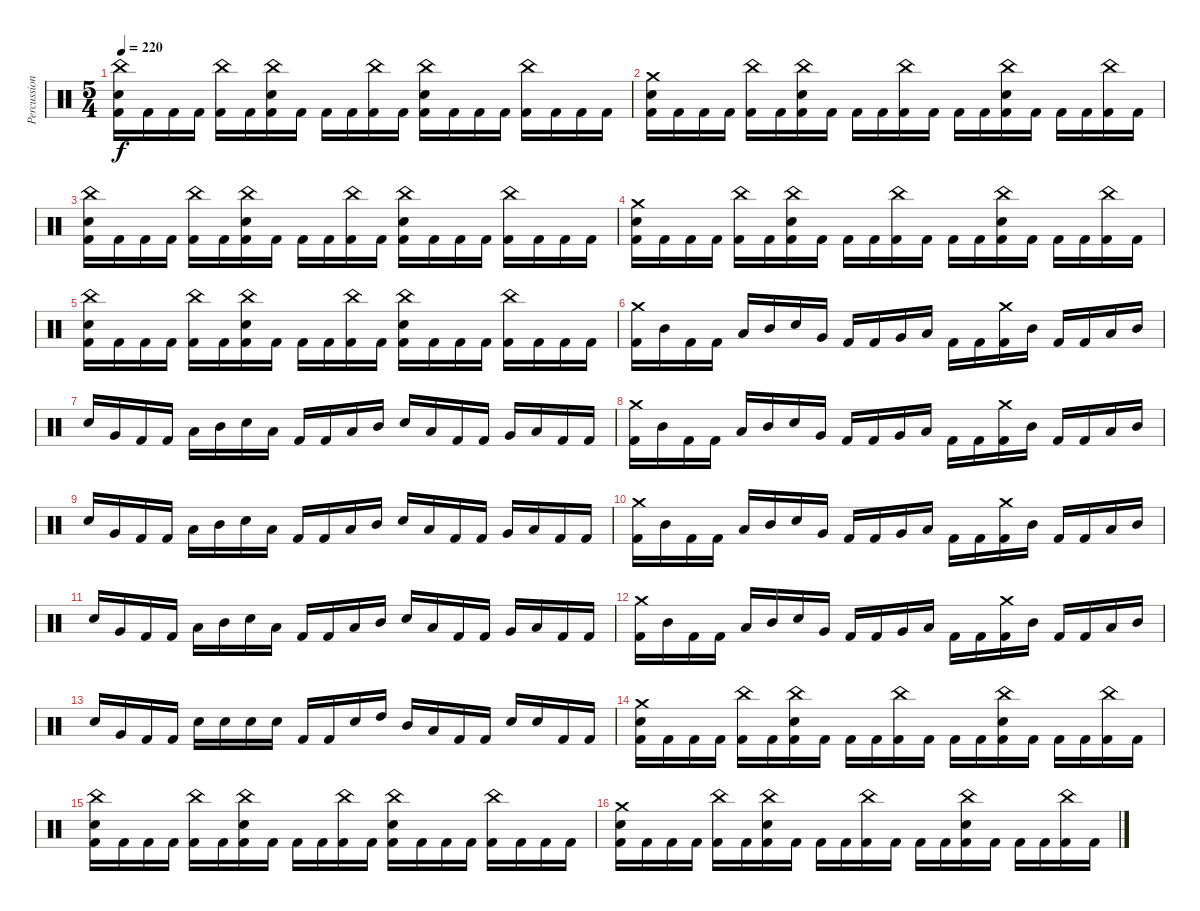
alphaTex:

\track ("Percussion" "Percussion") {instrument percussion}
\staff {score}
\articulation defaults
\ts (5 4)
\tempo 220
\clef neutral
\ks c
("China (hit)" "Electric Snare (hit)" "Kick (hit) 2").16{dy f} "Kick (hit) 2".16 "Kick (hit) 2".16 "Kick (hit) 2".16 ("China (hit)" "Kick (hit) 2").16 "Kick (hit) 2".16 ("China (hit)" "Electric Snare (hit)" "Kick (hit) 2").16 "Kick (hit) 2".16 "Kick (hit) 2".16 "Kick (hit) 2".16 ("China (hit)" "Kick (hit) 2").16 "Kick (hit) 2".16 ("China (hit)" "Electric Snare (hit)" "Kick (hit) 2").16 "Kick (hit) 2".16 "Kick (hit) 2".16 "Kick (hit) 2".16 ("China (hit)" "Kick (hit) 2").16 "Kick (hit) 2".16 "Kick (hit) 2".16 "Kick (hit) 2".16 |
("Crash medium (hit)" "Electric Snare (hit)" "Kick (hit) 2").16 "Kick (hit) 2".16 "Kick (hit) 2".16 "Kick (hit) 2".16 ("China (hit)" "Kick (hit) 2").16 "Kick (hit) 2".16 ("China (hit)" "Electric Snare (hit)" "Kick (hit) 2").16 "Kick (hit) 2".16 "Kick (hit) 2".16 "Kick (hit) 2".16 ("China (hit)" "Kick (hit) 2").16 "Kick (hit) 2".16 "Kick (hit) 2".16 "Kick (hit) 2".16 ("China (hit)" "Electric Snare (hit)" "Kick (hit) 2").16 "Kick (hit) 2".16 "Kick (hit) 2".16 "Kick (hit) 2".16 ("China (hit)" "Kick (hit) 2").16 "Kick (hit) 2".16 |
("China (hit)" "Electric Snare (hit)" "Kick (hit) 2").16 "Kick (hit) 2".16 "Kick (hit) 2".16 "Kick (hit) 2".16 ("China (hit)" "Kick (hit) 2").16 "Kick (hit) 2".16 ("China (hit)" "Electric Snare (hit)" "Kick (hit) 2").16 "Kick (hit) 2".16 "Kick (hit) 2".16 "Kick (hit) 2".16 ("China (hit)" "Kick (hit) 2").16 "Kick (hit) 2".16 ("China (hit)" "Electric Snare (hit)" "Kick (hit) 2").16 "Kick (hit) 2".16 "Kick (hit) 2".16 "Kick (hit) 2".16 ("China (hit)" "Kick (hit) 2").16 "Kick (hit) 2".16 "Kick (hit) 2".16 "Kick (hit) 2".16 |
("Crash medium (hit)" "Electric Snare (hit)" "Kick (hit) 2").16 "Kick (hit) 2".16 "Kick (hit) 2".16 "Kick (hit) 2".16 ("China (hit)" "Kick (hit) 2").16 "Kick (hit) 2".16 ("China (hit)" "Electric Snare (hit)" "Kick (hit) 2").16 "Kick (hit) 2".16 "Kick (hit) 2".16 "Kick (hit) 2".16 ("China (hit)" "Kick (hit) 2").16 "Kick (hit) 2".16 "Kick (hit) 2".16 "Kick (hit) 2".16 ("China (hit)" "Electric Snare (hit)" "Kick (hit) 2").16 "Kick (hit) 2".16 "Kick (hit) 2".16 "Kick (hit) 2".16 ("China (hit)" "Kick (hit) 2").16 "Kick (hit) 2".16 |
("China (hit)" "Electric Snare (hit)" "Kick (hit) 2").16 "Kick (hit) 2".16 "Kick (hit) 2".16 "Kick (hit) 2".16 ("China (hit)" "Kick (hit) 2").16 "Kick (hit) 2".16 ("China (hit)" "Electric Snare (hit)" "Kick (hit) 2").16 "Kick (hit) 2".16 "Kick (hit) 2".16 "Kick (hit) 2".16 ("China (hit)" "Kick (hit) 2").16 "Kick (hit) 2".16 ("China (hit)" "Electric Snare (hit)" "Kick (hit) 2").16 "Kick (hit) 2".16 "Kick (hit) 2".16 "Kick (hit) 2".16 ("China (hit)" "Kick (hit) 2").16 "Kick (hit) 2".16 "Kick (hit) 2".16 "Kick (hit) 2".16 |
("Crash medium (hit)" "Kick (hit) 2").16 "Mid Tom (hit)".16 "Kick (hit) 2".16 "Kick (hit) 2".16 "Low Tom (hit)".16 "Mid Tom (hit)".16 "Electric Snare (hit)".16 "Very Low Tom (hit)".16 "Kick (hit) 2".16 "Kick (hit) 2".16 "Very Low Tom (hit)".16 "Low Floor Tom (hit)".16 "Kick (hit) 2".16 "Kick (hit) 2".16 ("Crash medium (hit)" "Kick (hit) 2").16 "Mid Tom (hit)".16 "Kick (hit) 2".16 "Kick (hit) 2".16 "Low Tom (hit)".16 "Mid Tom (hit)".16 |
"Electric Snare (hit)".16 "Very Low Tom (hit)".16 "Kick (hit) 2".16 "Kick (hit) 2".16 "Low Tom (hit)".16 "Mid Tom (hit)".16 "Electric Snare (hit)".16 "Low Tom (hit)".16 "Kick (hit) 2".16 "Kick (hit) 2".16 "Low Tom (hit)".16 "Mid Tom (hit)".16 "Electric Snare (hit)".16 "Low Tom (hit)".16 "Kick (hit) 2".16 "Kick (hit) 2".16 "Very Low Tom (hit)".16 "Low Floor Tom (hit)".16 "Kick (hit) 2".16 "Kick (hit) 2".16 |
("Crash medium (hit)" "Kick (hit) 2").16 "Mid Tom (hit)".16 "Kick (hit) 2".16 "Kick (hit) 2".16 "Low Tom (hit)".16 "Mid Tom (hit)".16 "Electric Snare (hit)".16 "Very Low Tom (hit)".16 "Kick (hit) 2".16 "Kick (hit) 2".16 "Very Low Tom (hit)".16 "Low Floor Tom (hit)".16 "Kick (hit) 2".16 "Kick (hit) 2".16 ("Crash medium (hit)" "Kick (hit) 2").16 "Mid Tom (hit)".16 "Kick (hit) 2".16 "Kick (hit) 2".16 "Low Tom (hit)".16 "Mid Tom (hit)".16 |
"Electric Snare (hit)".16 "Very Low Tom (hit)".16 "Kick (hit) 2".16 "Kick (hit) 2".16 "Low Tom (hit)".16 "Mid Tom (hit)".16 "Electric Snare (hit)".16 "Low Tom (hit)".16 "Kick (hit) 2".16 "Kick (hit) 2".16 "Low Tom (hit)".16 "Mid Tom (hit)".16 "Electric Snare (hit)".16 "Low Tom (hit)".16 "Kick (hit) 2".16 "Kick (hit) 2".16 "Very Low Tom (hit)".16 "Low Floor Tom (hit)".16 "Kick (hit) 2".16 "Kick (hit) 2".16 |
("Crash medium (hit)" "Kick (hit) 2").16 "Mid Tom (hit)".16 "Kick (hit) 2".16 "Kick (hit) 2".16 "Low Tom (hit)".16 "Mid Tom (hit)".16 "Electric Snare (hit)".16 "Very Low Tom (hit)".16 "Kick (hit) 2".16 "Kick (hit) 2".16 "Very Low Tom (hit)".16 "Low Floor Tom (hit)".16 "Kick (hit) 2".16 "Kick (hit) 2".16 ("Crash medium (hit)" "Kick (hit) 2").16 "Mid Tom (hit)".16 "Kick (hit) 2".16 "Kick (hit) 2".16 "Low Tom (hit)".16 "Mid Tom (hit)".16 |
"Electric Snare (hit)".16 "Very Low Tom (hit)".16 "Kick (hit) 2".16 "Kick (hit) 2".16 "Low Tom (hit)".16 "Mid Tom (hit)".16 "Electric Snare (hit)".16 "Low Tom (hit)".16 "Kick (hit) 2".16 "Kick (hit) 2".16 "Low Tom (hit)".16 "Mid Tom (hit)".16 "Electric Snare (hit)".16 "Low Tom (hit)".16 "Kick (hit) 2".16 "Kick (hit) 2".16 "Very Low Tom (hit)".16 "Low Floor Tom (hit)".16 "Kick (hit) 2".16 "Kick (hit) 2".16 |
("Crash medium (hit)" "Kick (hit) 2").16 "Mid Tom (hit)".16 "Kick (hit) 2".16 "Kick (hit) 2".16 "Low Tom (hit)".16 "Mid Tom (hit)".16 "Electric Snare (hit)".16 "Very Low Tom (hit)".16 "Kick (hit) 2".16 "Kick (hit) 2".16 "Very Low Tom (hit)".16 "Low Floor Tom (hit)".16 "Kick (hit) 2".16 "Kick (hit) 2".16 ("Crash medium (hit)" "Kick (hit) 2").16 "Mid Tom (hit)".16 "Kick (hit) 2".16 "Kick (hit) 2".16 "Low Tom (hit)".16 "Mid Tom (hit)".16 |
"Electric Snare (hit)".16 "Very Low Tom (hit)".16 "Kick (hit) 2".16 "Kick (hit) 2".16 "Electric Snare (hit)".16 "Electric Snare (hit)".16 "Electric Snare (hit)".16 "Electric Snare (hit)".16 "Kick (hit) 2".16 "Kick (hit) 2".16 "Electric Snare (hit)".16 "High Tom (hit)".16 "Mid Tom (hit)".16 "Low Tom (hit)".16 "Kick (hit) 2".16 "Kick (hit) 2".16 "Electric Snare (hit)".16 "Electric Snare (hit)".16 "Kick (hit) 2".16 "Kick (hit) 2".16 |
("Crash medium (hit)" "Electric Snare (hit)" "Kick (hit) 2").16 "Kick (hit) 2".16 "Kick (hit) 2".16 "Kick (hit) 2".16 ("China (hit)" "Kick (hit) 2").16 "Kick (hit) 2".16 ("China (hit)" "Electric Snare (hit)" "Kick (hit) 2").16 "Kick (hit) 2".16 "Kick (hit) 2".16 "Kick (hit) 2".16 ("China (hit)" "Kick (hit) 2").16 "Kick (hit) 2".16 "Kick (hit) 2".16 "Kick (hit) 2".16 ("China (hit)" "Electric Snare (hit)" "Kick (hit) 2").16 "Kick (hit) 2".16 "Kick (hit) 2".16 "Kick (hit) 2".16 ("China (hit)" "Kick (hit) 2").16 "Kick (hit) 2".16 |
("China (hit)" "Electric Snare (hit)" "Kick (hit) 2").16 "Kick (hit) 2".16 "Kick (hit) 2".16 "Kick (hit) 2".16 ("China (hit)" "Kick (hit) 2").16 "Kick (hit) 2".16 ("China (hit)" "Electric Snare (hit)" "Kick (hit) 2").16 "Kick (hit) 2".16 "Kick (hit) 2".16 "Kick (hit) 2".16 ("China (hit)" "Kick (hit) 2").16 "Kick (hit) 2".16 ("China (hit)" "Electric Snare (hit)" "Kick (hit) 2").16 "Kick (hit) 2".16 "Kick (hit) 2".16 "Kick (hit) 2".16 ("China (hit)" "Kick (hit) 2").16 "Kick (hit) 2".16 "Kick (hit) 2".16 "Kick (hit) 2".16 |
("Crash medium (hit)" "Electric Snare (hit)" "Kick (hit) 2").16 "Kick (hit) 2".16 "Kick (hit) 2".16 "Kick (hit) 2".16 ("China (hit)" "Kick (hit) 2").16 "Kick (hit) 2".16 ("China (hit)" "Electric Snare (hit)" "Kick (hit) 2").16 "Kick (hit) 2".16 "Kick (hit) 2".16 "Kick (hit) 2".16 ("China (hit)" "Kick (hit) 2").16 "Kick (hit) 2".16 "Kick (hit) 2".16 "Kick (hit) 2".16 ("China (hit)" "Electric Snare (hit)" "Kick (hit) 2").16 "Kick (hit) 2".16 "Kick (hit) 2".16 "Kick (hit) 2".16 ("China (hit)" "Kick (hit) 2").16 "Kick (hit) 2".16
